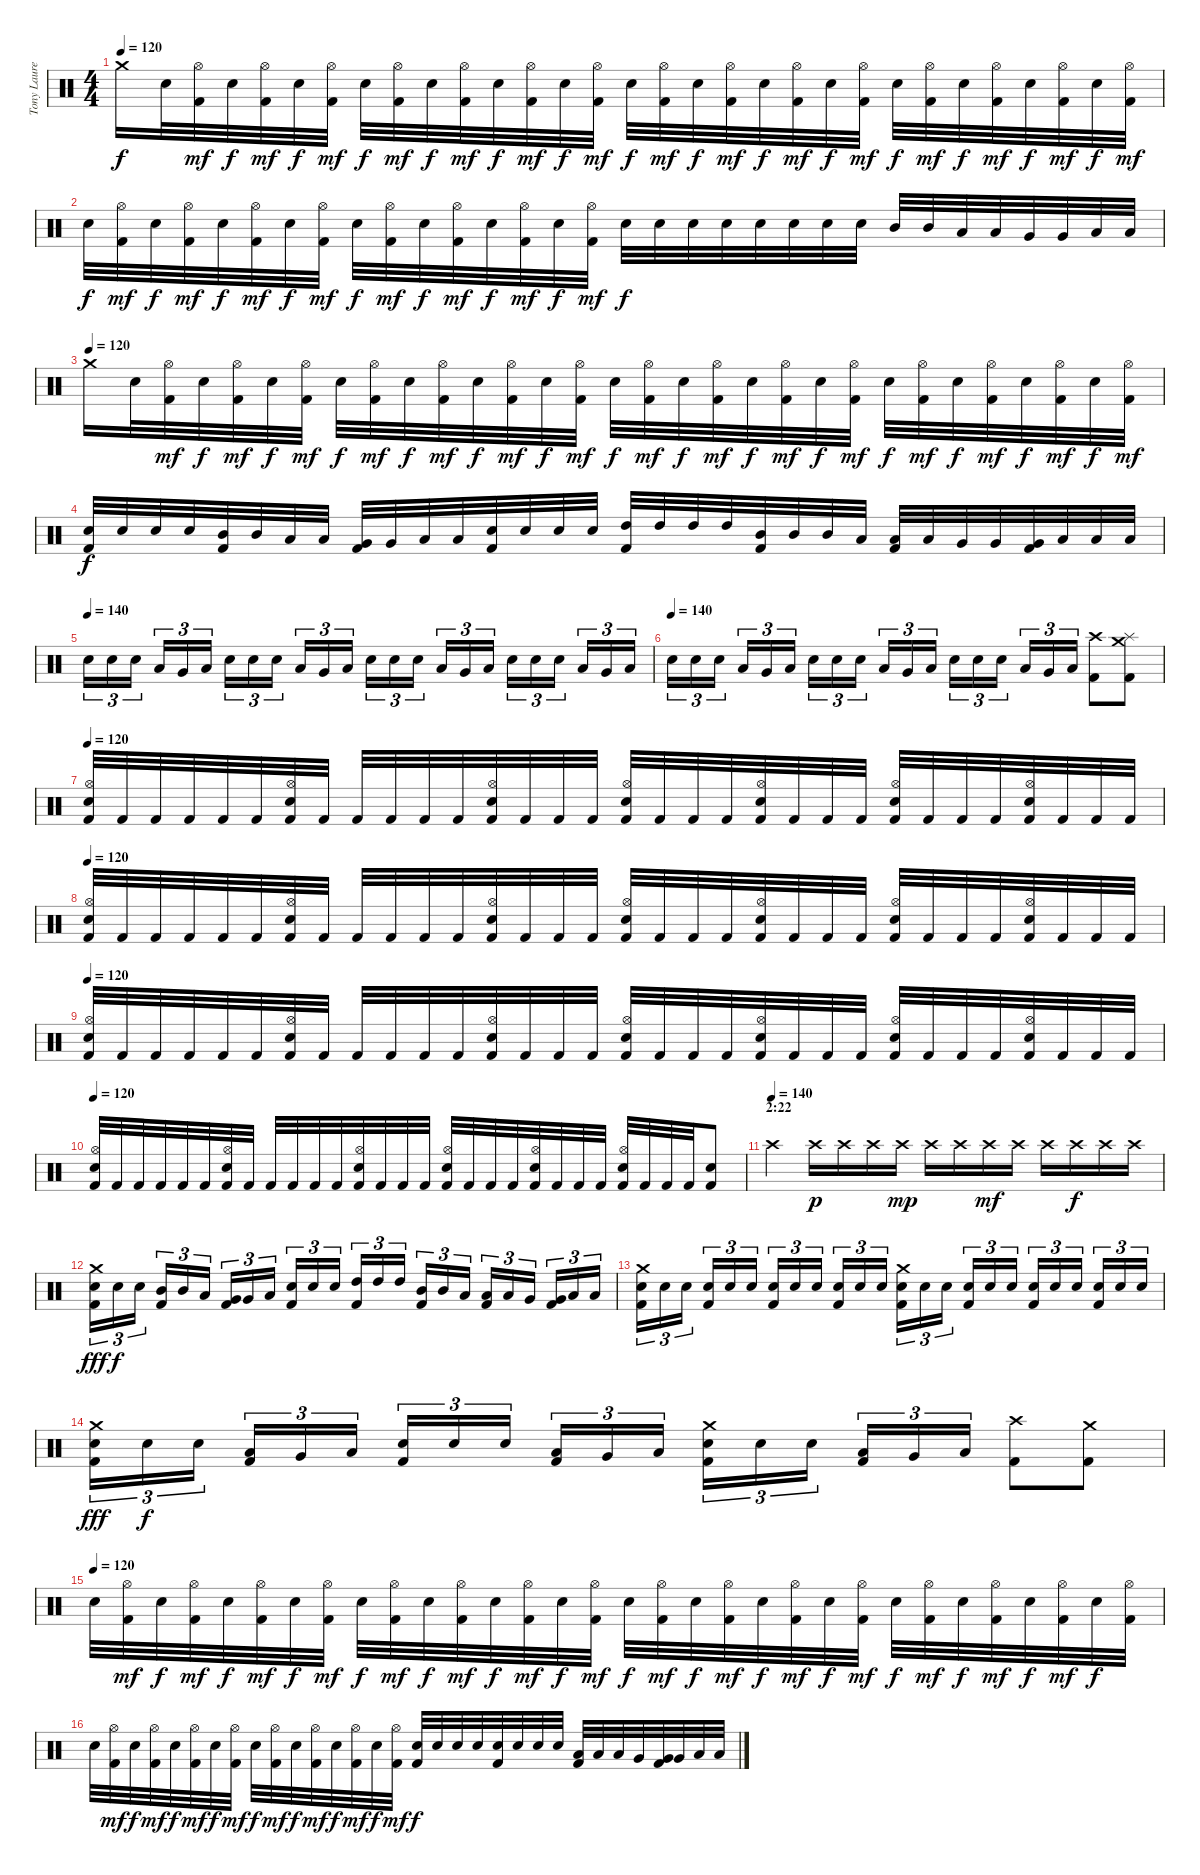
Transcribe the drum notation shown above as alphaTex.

\track ("Tony Laureano" "Tony Laure") {instrument percussion}
\staff {score}
\articulation defaults
\ts (4 4)
\tempo 120
\clef neutral
\ks c "Crash medium (hit)".16{dy f} "Electric Snare (hit)".32
("Hi-Hat (open)" "Kick (hit) 2").32{dy mf} "Electric Snare (hit)".32{dy f} ("Hi-Hat (open)" "Kick (hit) 2").32{dy mf} "Electric Snare (hit)".32{dy f} ("Hi-Hat (open)" "Kick (hit) 2").32{dy mf} "Electric Snare (hit)".32{dy f} ("Hi-Hat (open)" "Kick (hit) 2").32{dy mf} "Electric Snare (hit)".32{dy f} ("Hi-Hat (open)" "Kick (hit) 2").32{dy mf} "Electric Snare (hit)".32{dy f} ("Hi-Hat (open)" "Kick (hit) 2").32{dy mf} "Electric Snare (hit)".32{dy f} ("Hi-Hat (open)" "Kick (hit) 2").32{dy mf} "Electric Snare (hit)".32{dy f} ("Hi-Hat (open)" "Kick (hit) 2").32{dy mf} "Electric Snare (hit)".32{dy f} ("Hi-Hat (open)" "Kick (hit) 2").32{dy mf} "Electric Snare (hit)".32{dy f} ("Hi-Hat (open)" "Kick (hit) 2").32{dy mf} "Electric Snare (hit)".32{dy f} ("Hi-Hat (open)" "Kick (hit) 2").32{dy mf} "Electric Snare (hit)".32{dy f} ("Hi-Hat (open)" "Kick (hit) 2").32{dy mf} "Electric Snare (hit)".32{dy f} ("Hi-Hat (open)" "Kick (hit) 2").32{dy mf} "Electric Snare (hit)".32{dy f} ("Hi-Hat (open)" "Kick (hit) 2").32{dy mf} "Electric Snare (hit)".32{dy f} ("Hi-Hat (open)" "Kick (hit) 2").32{dy mf} |
"Electric Snare (hit)".32{dy f} ("Hi-Hat (open)" "Kick (hit) 2").32{dy mf} "Electric Snare (hit)".32{dy f} ("Hi-Hat (open)" "Kick (hit) 2").32{dy mf} "Electric Snare (hit)".32{dy f} ("Hi-Hat (open)" "Kick (hit) 2").32{dy mf} "Electric Snare (hit)".32{dy f} ("Hi-Hat (open)" "Kick (hit) 2").32{dy mf} "Electric Snare (hit)".32{dy f} ("Hi-Hat (open)" "Kick (hit) 2").32{dy mf} "Electric Snare (hit)".32{dy f} ("Hi-Hat (open)" "Kick (hit) 2").32{dy mf} "Electric Snare (hit)".32{dy f} ("Hi-Hat (open)" "Kick (hit) 2").32{dy mf} "Electric Snare (hit)".32{dy f} ("Hi-Hat (open)" "Kick (hit) 2").32{dy mf} "Electric Snare (hit)".32{dy f} "Electric Snare (hit)".32 "Electric Snare (hit)".32 "Electric Snare (hit)".32 "Electric Snare (hit)".32 "Electric Snare (hit)".32 "Electric Snare (hit)".32 "Electric Snare (hit)".32 "Mid Tom (hit)".32 "Mid Tom (hit)".32 "Low Tom (hit)".32 "Low Tom (hit)".32 "Very Low Tom (hit)".32 "Very Low Tom (hit)".32 "Low Floor Tom (hit)".32 "Low Floor Tom (hit)".32 |
\tempo (120)
"Crash medium (hit)".16 "Electric Snare (hit)".32 ("Hi-Hat (open)" "Kick (hit) 2").32{dy mf} "Electric Snare (hit)".32{dy f} ("Hi-Hat (open)" "Kick (hit) 2").32{dy mf} "Electric Snare (hit)".32{dy f} ("Hi-Hat (open)" "Kick (hit) 2").32{dy mf} "Electric Snare (hit)".32{dy f} ("Hi-Hat (open)" "Kick (hit) 2").32{dy mf} "Electric Snare (hit)".32{dy f} ("Hi-Hat (open)" "Kick (hit) 2").32{dy mf} "Electric Snare (hit)".32{dy f} ("Hi-Hat (open)" "Kick (hit) 2").32{dy mf} "Electric Snare (hit)".32{dy f} ("Hi-Hat (open)" "Kick (hit) 2").32{dy mf} "Electric Snare (hit)".32{dy f} ("Hi-Hat (open)" "Kick (hit) 2").32{dy mf} "Electric Snare (hit)".32{dy f} ("Hi-Hat (open)" "Kick (hit) 2").32{dy mf} "Electric Snare (hit)".32{dy f} ("Hi-Hat (open)" "Kick (hit) 2").32{dy mf} "Electric Snare (hit)".32{dy f} ("Hi-Hat (open)" "Kick (hit) 2").32{dy mf} "Electric Snare (hit)".32{dy f} ("Hi-Hat (open)" "Kick (hit) 2").32{dy mf} "Electric Snare (hit)".32{dy f} ("Hi-Hat (open)" "Kick (hit) 2").32{dy mf} "Electric Snare (hit)".32{dy f} ("Hi-Hat (open)" "Kick (hit) 2").32{dy mf} "Electric Snare (hit)".32{dy f} ("Hi-Hat (open)" "Kick (hit) 2").32{dy mf} |
("Electric Snare (hit)" "Kick (hit) 2").32{dy f} "Electric Snare (hit)".32 "Electric Snare (hit)".32 "Electric Snare (hit)".32 ("Mid Tom (hit)" "Kick (hit) 2").32 "Mid Tom (hit)".32 "Low Tom (hit)".32 "Low Tom (hit)".32 ("Very Low Tom (hit)" "Kick (hit) 2").32 "Very Low Tom (hit)".32 "Low Floor Tom (hit)".32 "Low Floor Tom (hit)".32 ("Electric Snare (hit)" "Kick (hit) 2").32 "Electric Snare (hit)".32 "Electric Snare (hit)".32 "Electric Snare (hit)".32 ("High Tom (hit)" "Kick (hit) 2").32 "High Tom (hit)".32 "High Tom (hit)".32 "High Tom (hit)".32 ("Mid Tom (hit)" "Kick (hit) 2").32 "Mid Tom (hit)".32 "Mid Tom (hit)".32 "Low Tom (hit)".32 ("Low Tom (hit)" "Kick (hit) 2").32 "Low Tom (hit)".32 "Very Low Tom (hit)".32 "Very Low Tom (hit)".32 ("Very Low Tom (hit)" "Kick (hit) 2").32 "Low Floor Tom (hit)".32 "Low Floor Tom (hit)".32 "Low Floor Tom (hit)".32 |
\tempo (140)
"Electric Snare (hit)".16{tu (3 2)} "Electric Snare (hit)".16{tu (3 2)} "Electric Snare (hit)".16{tu (3 2)} "Low Tom (hit)".16{tu (3 2)} "Very Low Tom (hit)".16{tu (3 2)} "Low Floor Tom (hit)".16{tu (3 2)} "Electric Snare (hit)".16{tu (3 2)} "Electric Snare (hit)".16{tu (3 2)} "Electric Snare (hit)".16{tu (3 2)} "Low Tom (hit)".16{tu (3 2)} "Very Low Tom (hit)".16{tu (3 2)} "Low Floor Tom (hit)".16{tu (3 2)} "Electric Snare (hit)".16{tu (3 2)} "Electric Snare (hit)".16{tu (3 2)} "Electric Snare (hit)".16{tu (3 2)} "Low Tom (hit)".16{tu (3 2)} "Very Low Tom (hit)".16{tu (3 2)} "Low Floor Tom (hit)".16{tu (3 2)} "Electric Snare (hit)".16{tu (3 2)} "Electric Snare (hit)".16{tu (3 2)} "Electric Snare (hit)".16{tu (3 2)} "Low Tom (hit)".16{tu (3 2)} "Very Low Tom (hit)".16{tu (3 2)} "Low Floor Tom (hit)".16{tu (3 2)} |
\tempo (140)
"Electric Snare (hit)".16{tu (3 2)} "Electric Snare (hit)".16{tu (3 2)} "Electric Snare (hit)".16{tu (3 2)} "Low Tom (hit)".16{tu (3 2)} "Very Low Tom (hit)".16{tu (3 2)} "Low Floor Tom (hit)".16{tu (3 2)} "Electric Snare (hit)".16{tu (3 2)} "Electric Snare (hit)".16{tu (3 2)} "Electric Snare (hit)".16{tu (3 2)} "Low Tom (hit)".16{tu (3 2)} "Very Low Tom (hit)".16{tu (3 2)} "Low Floor Tom (hit)".16{tu (3 2)} "Electric Snare (hit)".16{tu (3 2)} "Electric Snare (hit)".16{tu (3 2)} "Electric Snare (hit)".16{tu (3 2)} "Low Tom (hit)".16{tu (3 2)} "Very Low Tom (hit)".16{tu (3 2)} "Low Floor Tom (hit)".16{tu (3 2)} ("Crash high (hit)" "Kick (hit) 2").8 ("Splash (hit)" "Crash medium (hit)" "Kick (hit) 2").8 |
\tempo 120
("Hi-Hat (open)" "Electric Snare (hit)" "Kick (hit) 2").32 "Kick (hit) 2".32 "Kick (hit) 2".32 "Kick (hit) 2".32 "Kick (hit) 2".32 "Kick (hit) 2".32 ("Hi-Hat (open)" "Electric Snare (hit)" "Kick (hit) 2").32 "Kick (hit) 2".32 "Kick (hit) 2".32 "Kick (hit) 2".32 "Kick (hit) 2".32 "Kick (hit) 2".32 ("Hi-Hat (open)" "Electric Snare (hit)" "Kick (hit) 2").32 "Kick (hit) 2".32 "Kick (hit) 2".32 "Kick (hit) 2".32 ("Hi-Hat (open)" "Electric Snare (hit)" "Kick (hit) 2").32 "Kick (hit) 2".32 "Kick (hit) 2".32 "Kick (hit) 2".32 ("Hi-Hat (open)" "Electric Snare (hit)" "Kick (hit) 2").32 "Kick (hit) 2".32 "Kick (hit) 2".32 "Kick (hit) 2".32 ("Hi-Hat (open)" "Electric Snare (hit)" "Kick (hit) 2").32 "Kick (hit) 2".32 "Kick (hit) 2".32 "Kick (hit) 2".32 ("Hi-Hat (open)" "Electric Snare (hit)" "Kick (hit) 2").32 "Kick (hit) 2".32 "Kick (hit) 2".32 "Kick (hit) 2".32 |
\tempo 120
("Hi-Hat (open)" "Electric Snare (hit)" "Kick (hit) 2").32 "Kick (hit) 2".32 "Kick (hit) 2".32 "Kick (hit) 2".32 "Kick (hit) 2".32 "Kick (hit) 2".32 ("Hi-Hat (open)" "Electric Snare (hit)" "Kick (hit) 2").32 "Kick (hit) 2".32 "Kick (hit) 2".32 "Kick (hit) 2".32 "Kick (hit) 2".32 "Kick (hit) 2".32 ("Hi-Hat (open)" "Electric Snare (hit)" "Kick (hit) 2").32 "Kick (hit) 2".32 "Kick (hit) 2".32 "Kick (hit) 2".32 ("Hi-Hat (open)" "Electric Snare (hit)" "Kick (hit) 2").32 "Kick (hit) 2".32 "Kick (hit) 2".32 "Kick (hit) 2".32 ("Hi-Hat (open)" "Electric Snare (hit)" "Kick (hit) 2").32 "Kick (hit) 2".32 "Kick (hit) 2".32 "Kick (hit) 2".32 ("Hi-Hat (open)" "Electric Snare (hit)" "Kick (hit) 2").32 "Kick (hit) 2".32 "Kick (hit) 2".32 "Kick (hit) 2".32 ("Hi-Hat (open)" "Electric Snare (hit)" "Kick (hit) 2").32 "Kick (hit) 2".32 "Kick (hit) 2".32 "Kick (hit) 2".32 |
\tempo 120
("Hi-Hat (open)" "Electric Snare (hit)" "Kick (hit) 2").32 "Kick (hit) 2".32 "Kick (hit) 2".32 "Kick (hit) 2".32 "Kick (hit) 2".32 "Kick (hit) 2".32 ("Hi-Hat (open)" "Electric Snare (hit)" "Kick (hit) 2").32 "Kick (hit) 2".32 "Kick (hit) 2".32 "Kick (hit) 2".32 "Kick (hit) 2".32 "Kick (hit) 2".32 ("Hi-Hat (open)" "Electric Snare (hit)" "Kick (hit) 2").32 "Kick (hit) 2".32 "Kick (hit) 2".32 "Kick (hit) 2".32 ("Hi-Hat (open)" "Electric Snare (hit)" "Kick (hit) 2").32 "Kick (hit) 2".32 "Kick (hit) 2".32 "Kick (hit) 2".32 ("Hi-Hat (open)" "Electric Snare (hit)" "Kick (hit) 2").32 "Kick (hit) 2".32 "Kick (hit) 2".32 "Kick (hit) 2".32 ("Hi-Hat (open)" "Electric Snare (hit)" "Kick (hit) 2").32 "Kick (hit) 2".32 "Kick (hit) 2".32 "Kick (hit) 2".32 ("Hi-Hat (open)" "Electric Snare (hit)" "Kick (hit) 2").32 "Kick (hit) 2".32 "Kick (hit) 2".32 "Kick (hit) 2".32 |
\tempo 120
("Hi-Hat (open)" "Electric Snare (hit)" "Kick (hit) 2").32 "Kick (hit) 2".32 "Kick (hit) 2".32 "Kick (hit) 2".32 "Kick (hit) 2".32 "Kick (hit) 2".32 ("Hi-Hat (open)" "Electric Snare (hit)" "Kick (hit) 2").32 "Kick (hit) 2".32 "Kick (hit) 2".32 "Kick (hit) 2".32 "Kick (hit) 2".32 "Kick (hit) 2".32 ("Hi-Hat (open)" "Electric Snare (hit)" "Kick (hit) 2").32 "Kick (hit) 2".32 "Kick (hit) 2".32 "Kick (hit) 2".32 ("Hi-Hat (open)" "Electric Snare (hit)" "Kick (hit) 2").32 "Kick (hit) 2".32 "Kick (hit) 2".32 "Kick (hit) 2".32 ("Hi-Hat (open)" "Electric Snare (hit)" "Kick (hit) 2").32 "Kick (hit) 2".32 "Kick (hit) 2".32 "Kick (hit) 2".32 ("Hi-Hat (open)" "Electric Snare (hit)" "Kick (hit) 2").32 "Kick (hit) 2".32 "Kick (hit) 2".32 "Kick (hit) 2".32 ("Electric Snare (hit)" "Kick (hit) 2").8 |
\section ("" "2:22")
\tempo (140)
"Crash high (hit)".4 "Crash high (hit)".16{dy p} "Crash high (hit)".16 "Crash high (hit)".16 "Crash high (hit)".16{dy mp} "Crash high (hit)".16 "Crash high (hit)".16 "Crash high (hit)".16{dy mf} "Crash high (hit)".16 "Crash high (hit)".16 "Crash high (hit)".16{dy f} "Crash high (hit)".16 "Crash high (hit)".16 |
("Crash medium (hit)" "Electric Snare (hit)" "Kick (hit) 2").16{tu (3 2) dy fff} "Electric Snare (hit)".16{tu (3 2) dy f} "Electric Snare (hit)".16{tu (3 2)} ("Mid Tom (hit)" "Kick (hit) 2").16{tu (3 2)} "Mid Tom (hit)".16{tu (3 2)} "Low Tom (hit)".16{tu (3 2)} ("Very Low Tom (hit)" "Kick (hit) 2").16{tu (3 2)} "Very Low Tom (hit)".16{tu (3 2)} "Low Floor Tom (hit)".16{tu (3 2)} ("Electric Snare (hit)" "Kick (hit) 2").16{tu (3 2)} "Electric Snare (hit)".16{tu (3 2)} "Electric Snare (hit)".16{tu (3 2)} ("High Tom (hit)" "Kick (hit) 2").16{tu (3 2)} "High Tom (hit)".16{tu (3 2)} "High Tom (hit)".16{tu (3 2)} ("Mid Tom (hit)" "Kick (hit) 2").16{tu (3 2)} "Mid Tom (hit)".16{tu (3 2)} "Low Tom (hit)".16{tu (3 2)} ("Low Tom (hit)" "Kick (hit) 2").16{tu (3 2)} "Low Tom (hit)".16{tu (3 2)} "Very Low Tom (hit)".16{tu (3 2)} ("Very Low Tom (hit)" "Kick (hit) 2").16{tu (3 2)} "Low Floor Tom (hit)".16{tu (3 2)} "Low Floor Tom (hit)".16{tu (3 2)} |
("Crash medium (hit)" "Electric Snare (hit)" "Kick (hit) 2").16{tu (3 2)} "Electric Snare (hit)".16{tu (3 2)} "Electric Snare (hit)".16{tu (3 2)} ("Electric Snare (hit)" "Kick (hit) 2").16{tu (3 2)} "Electric Snare (hit)".16{tu (3 2)} "Electric Snare (hit)".16{tu (3 2)} ("Electric Snare (hit)" "Kick (hit) 2").16{tu (3 2)} "Electric Snare (hit)".16{tu (3 2)} "Electric Snare (hit)".16{tu (3 2)} ("Electric Snare (hit)" "Kick (hit) 2").16{tu (3 2)} "Electric Snare (hit)".16{tu (3 2)} "Electric Snare (hit)".16{tu (3 2)} ("Crash medium (hit)" "Electric Snare (hit)" "Kick (hit) 2").16{tu (3 2)} "Electric Snare (hit)".16{tu (3 2)} "Electric Snare (hit)".16{tu (3 2)} ("Electric Snare (hit)" "Kick (hit) 2").16{tu (3 2)} "Electric Snare (hit)".16{tu (3 2)} "Electric Snare (hit)".16{tu (3 2)} ("Electric Snare (hit)" "Kick (hit) 2").16{tu (3 2)} "Electric Snare (hit)".16{tu (3 2)} "Electric Snare (hit)".16{tu (3 2)} ("Electric Snare (hit)" "Kick (hit) 2").16{tu (3 2)} "Electric Snare (hit)".16{tu (3 2)} "Electric Snare (hit)".16{tu (3 2)} |
("Crash medium (hit)" "Electric Snare (hit)" "Kick (hit) 2").16{tu (3 2) dy fff} "Electric Snare (hit)".16{tu (3 2) dy f} "Electric Snare (hit)".16{tu (3 2)} ("Low Tom (hit)" "Kick (hit) 2").16{tu (3 2)} "Very Low Tom (hit)".16{tu (3 2)} "Low Floor Tom (hit)".16{tu (3 2)} ("Electric Snare (hit)" "Kick (hit) 2").16{tu (3 2)} "Electric Snare (hit)".16{tu (3 2)} "Electric Snare (hit)".16{tu (3 2)} ("Low Tom (hit)" "Kick (hit) 2").16{tu (3 2)} "Very Low Tom (hit)".16{tu (3 2)} "Low Floor Tom (hit)".16{tu (3 2)} ("Crash medium (hit)" "Electric Snare (hit)" "Kick (hit) 2").16{tu (3 2)} "Electric Snare (hit)".16{tu (3 2)} "Electric Snare (hit)".16{tu (3 2)} ("Low Tom (hit)" "Kick (hit) 2").16{tu (3 2)} "Very Low Tom (hit)".16{tu (3 2)} "Low Floor Tom (hit)".16{tu (3 2)} ("Crash high (hit)" "Kick (hit) 2").8 ("Crash medium (hit)" "Kick (hit) 2").8 |
\tempo (120)
"Electric Snare (hit)".32 ("Hi-Hat (open)" "Kick (hit) 2").32{dy mf} "Electric Snare (hit)".32{dy f} ("Hi-Hat (open)" "Kick (hit) 2").32{dy mf} "Electric Snare (hit)".32{dy f} ("Hi-Hat (open)" "Kick (hit) 2").32{dy mf} "Electric Snare (hit)".32{dy f} ("Hi-Hat (open)" "Kick (hit) 2").32{dy mf} "Electric Snare (hit)".32{dy f} ("Hi-Hat (open)" "Kick (hit) 2").32{dy mf} "Electric Snare (hit)".32{dy f} ("Hi-Hat (open)" "Kick (hit) 2").32{dy mf} "Electric Snare (hit)".32{dy f} ("Hi-Hat (open)" "Kick (hit) 2").32{dy mf} "Electric Snare (hit)".32{dy f} ("Hi-Hat (open)" "Kick (hit) 2").32{dy mf} "Electric Snare (hit)".32{dy f} ("Hi-Hat (open)" "Kick (hit) 2").32{dy mf} "Electric Snare (hit)".32{dy f} ("Hi-Hat (open)" "Kick (hit) 2").32{dy mf} "Electric Snare (hit)".32{dy f} ("Hi-Hat (open)" "Kick (hit) 2").32{dy mf} "Electric Snare (hit)".32{dy f} ("Hi-Hat (open)" "Kick (hit) 2").32{dy mf} "Electric Snare (hit)".32{dy f} ("Hi-Hat (open)" "Kick (hit) 2").32{dy mf} "Electric Snare (hit)".32{dy f} ("Hi-Hat (open)" "Kick (hit) 2").32{dy mf} "Electric Snare (hit)".32{dy f} ("Hi-Hat (open)" "Kick (hit) 2").32{dy mf} "Electric Snare (hit)".32{dy f} ("Hi-Hat (open)" "Kick (hit) 2").32 |
"Electric Snare (hit)".32 ("Hi-Hat (open)" "Kick (hit) 2").32{dy mf} "Electric Snare (hit)".32{dy f} ("Hi-Hat (open)" "Kick (hit) 2").32{dy mf} "Electric Snare (hit)".32{dy f} ("Hi-Hat (open)" "Kick (hit) 2").32{dy mf} "Electric Snare (hit)".32{dy f} ("Hi-Hat (open)" "Kick (hit) 2").32{dy mf} "Electric Snare (hit)".32{dy f} ("Hi-Hat (open)" "Kick (hit) 2").32{dy mf} "Electric Snare (hit)".32{dy f} ("Hi-Hat (open)" "Kick (hit) 2").32{dy mf} "Electric Snare (hit)".32{dy f} ("Hi-Hat (open)" "Kick (hit) 2").32{dy mf} "Electric Snare (hit)".32{dy f} ("Hi-Hat (open)" "Kick (hit) 2").32{dy mf} ("Electric Snare (hit)" "Kick (hit) 2").32{dy f} "Electric Snare (hit)".32 "Electric Snare (hit)".32 "Electric Snare (hit)".32 ("Electric Snare (hit)" "Kick (hit) 2").32 "Electric Snare (hit)".32 "Electric Snare (hit)".32 "Electric Snare (hit)".32 ("Low Tom (hit)" "Kick (hit) 2").32 "Low Tom (hit)".32 "Low Tom (hit)".32 "Very Low Tom (hit)".32 ("Very Low Tom (hit)" "Kick (hit) 2").32 "Very Low Tom (hit)".32 "Low Floor Tom (hit)".32 "Low Floor Tom (hit)".32
